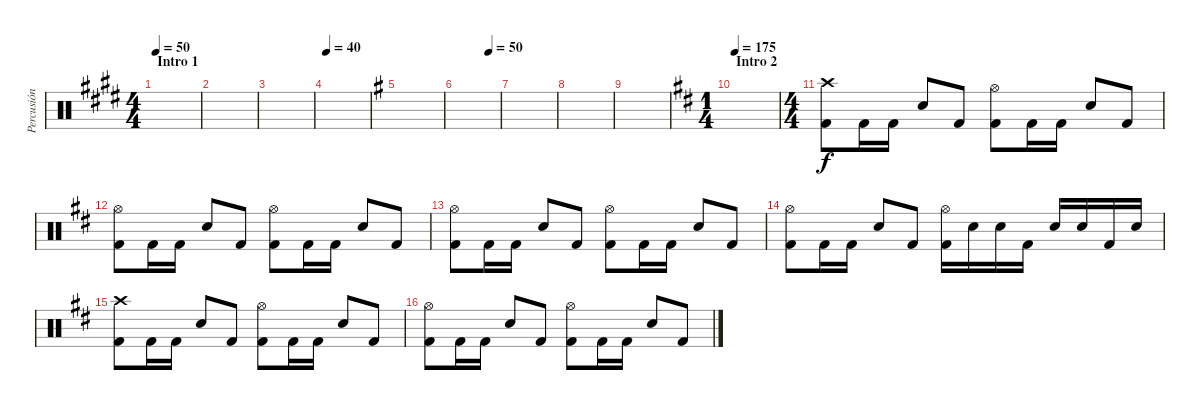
\track ("Percusión" "Percusión") {instrument percussion}
\staff {score}
\articulation defaults
\ts (4 4)
\section ("" "Intro 1")
\tempo 50
\clef neutral
\ks e
|
|
|
\tempo 40
|
\ks g
|
\tempo (50 0.75)
|
|
|
|
\ts (1 4)
\section ("" "Intro 2")
\tempo 175
\ks d
|
\ts (4 4)
("Crash high (hit)" "Kick (hit) 2").8 "Kick (hit) 2".16 "Kick (hit) 2".16 "Electric Snare (hit)".8 "Kick (hit) 2".8 ("Hi-Hat (open)" "Kick (hit) 2").8 "Kick (hit) 2".16 "Kick (hit) 2".16 "Electric Snare (hit)".8 "Kick (hit) 2".8 |
("Hi-Hat (open)" "Kick (hit) 2").8 "Kick (hit) 2".16 "Kick (hit) 2".16 "Electric Snare (hit)".8 "Kick (hit) 2".8 ("Hi-Hat (open)" "Kick (hit) 2").8 "Kick (hit) 2".16 "Kick (hit) 2".16 "Electric Snare (hit)".8 "Kick (hit) 2".8 |
("Hi-Hat (open)" "Kick (hit) 2").8 "Kick (hit) 2".16 "Kick (hit) 2".16 "Electric Snare (hit)".8 "Kick (hit) 2".8 ("Hi-Hat (open)" "Kick (hit) 2").8 "Kick (hit) 2".16 "Kick (hit) 2".16 "Electric Snare (hit)".8 "Kick (hit) 2".8 |
("Hi-Hat (open)" "Kick (hit) 2").8 "Kick (hit) 2".16 "Kick (hit) 2".16 "Electric Snare (hit)".8 "Kick (hit) 2".8 ("Hi-Hat (open)" "Kick (hit) 2").16 "Electric Snare (hit)".16 "Electric Snare (hit)".16 "Kick (hit) 2".16 "Electric Snare (hit)".16 "Electric Snare (hit)".16 "Kick (hit) 2".16 "Electric Snare (hit)".16 |
("Crash high (hit)" "Kick (hit) 2").8 "Kick (hit) 2".16 "Kick (hit) 2".16 "Electric Snare (hit)".8 "Kick (hit) 2".8 ("Hi-Hat (open)" "Kick (hit) 2").8 "Kick (hit) 2".16 "Kick (hit) 2".16 "Electric Snare (hit)".8 "Kick (hit) 2".8 |
("Hi-Hat (open)" "Kick (hit) 2").8 "Kick (hit) 2".16 "Kick (hit) 2".16 "Electric Snare (hit)".8 "Kick (hit) 2".8 ("Hi-Hat (open)" "Kick (hit) 2").8 "Kick (hit) 2".16 "Kick (hit) 2".16 "Electric Snare (hit)".8 "Kick (hit) 2".8
